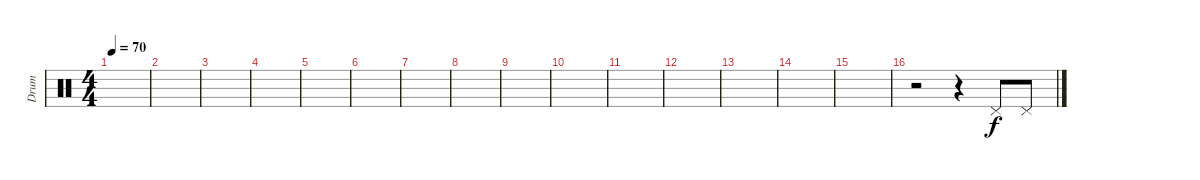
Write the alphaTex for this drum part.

\track ("Drum" "Drum") {instrument percussion}
\staff {score}
\articulation defaults
\ts (4 4)
\tempo 70
\clef neutral
\ks c
|
|
|
|
|
|
|
|
|
|
|
|
|
|
|
r.2 r.4 "Pedal Hi-Hat (hit)".8 "Pedal Hi-Hat (hit)".8
